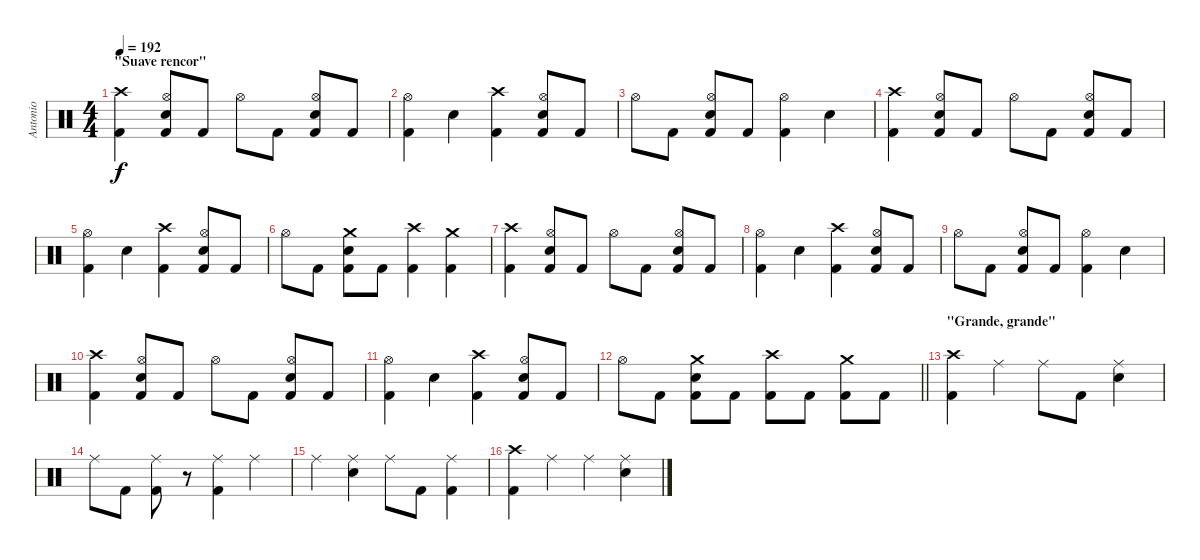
\track ("Antonio" "Antonio") {instrument percussion}
\staff {score}
\articulation defaults
\ts (4 4)
\section ("" "\"Suave rencor\"")
\tempo 192
\clef neutral
\ks c
("Crash high (hit)" "Kick (hit) 2").4{dy f} ("Hi-Hat (open)" "Electric Snare (hit)" "Kick (hit) 2").8 "Kick (hit) 2".8 "Hi-Hat (open)".8 "Kick (hit) 2".8 ("Hi-Hat (open)" "Electric Snare (hit)" "Kick (hit) 2").8 "Kick (hit) 2".8 |
("Hi-Hat (open)" "Kick (hit) 2").4 "Electric Snare (hit)".4 ("Crash high (hit)" "Kick (hit) 2").4 ("Hi-Hat (open)" "Electric Snare (hit)" "Kick (hit) 2").8 "Kick (hit) 2".8 |
"Hi-Hat (open)".8 "Kick (hit) 2".8 ("Hi-Hat (open)" "Electric Snare (hit)" "Kick (hit) 2").8 "Kick (hit) 2".8 ("Hi-Hat (open)" "Kick (hit) 2").4 "Electric Snare (hit)".4 |
("Crash high (hit)" "Kick (hit) 2").4 ("Hi-Hat (open)" "Electric Snare (hit)" "Kick (hit) 2").8 "Kick (hit) 2".8 "Hi-Hat (open)".8 "Kick (hit) 2".8 ("Hi-Hat (open)" "Electric Snare (hit)" "Kick (hit) 2").8 "Kick (hit) 2".8 |
("Hi-Hat (open)" "Kick (hit) 2").4 "Electric Snare (hit)".4 ("Crash high (hit)" "Kick (hit) 2").4 ("Hi-Hat (open)" "Electric Snare (hit)" "Kick (hit) 2").8 "Kick (hit) 2".8 |
"Hi-Hat (open)".8 "Kick (hit) 2".8 ("Crash medium (hit)" "Electric Snare (hit)" "Kick (hit) 2").8 "Kick (hit) 2".8 ("Crash high (hit)" "Kick (hit) 2").4 ("Crash medium (hit)" "Kick (hit) 2").4 |
("Crash high (hit)" "Kick (hit) 2").4 ("Hi-Hat (open)" "Electric Snare (hit)" "Kick (hit) 2").8 "Kick (hit) 2".8 "Hi-Hat (open)".8 "Kick (hit) 2".8 ("Hi-Hat (open)" "Electric Snare (hit)" "Kick (hit) 2").8 "Kick (hit) 2".8 |
("Hi-Hat (open)" "Kick (hit) 2").4 "Electric Snare (hit)".4 ("Crash high (hit)" "Kick (hit) 2").4 ("Hi-Hat (open)" "Electric Snare (hit)" "Kick (hit) 2").8 "Kick (hit) 2".8 |
"Hi-Hat (open)".8 "Kick (hit) 2".8 ("Hi-Hat (open)" "Electric Snare (hit)" "Kick (hit) 2").8 "Kick (hit) 2".8 ("Hi-Hat (open)" "Kick (hit) 2").4 "Electric Snare (hit)".4 |
("Crash high (hit)" "Kick (hit) 2").4 ("Hi-Hat (open)" "Electric Snare (hit)" "Kick (hit) 2").8 "Kick (hit) 2".8 "Hi-Hat (open)".8 "Kick (hit) 2".8 ("Hi-Hat (open)" "Electric Snare (hit)" "Kick (hit) 2").8 "Kick (hit) 2".8 |
("Hi-Hat (open)" "Kick (hit) 2").4 "Electric Snare (hit)".4 ("Crash high (hit)" "Kick (hit) 2").4 ("Hi-Hat (open)" "Electric Snare (hit)" "Kick (hit) 2").8 "Kick (hit) 2".8 |
\barLineRight lightlight "Hi-Hat (open)".8 "Kick (hit) 2".8
("Crash medium (hit)" "Electric Snare (hit)" "Kick (hit) 2").8 "Kick (hit) 2".8 ("Crash high (hit)" "Kick (hit) 2").8 "Kick (hit) 2".8 ("Crash medium (hit)" "Kick (hit) 2").8 "Kick (hit) 2".8 |
\section ("" "\"Grande, grande\"")
("Crash high (hit)" "Kick (hit) 2").4 "Ride (middle)".4 "Ride (middle)".8 "Kick (hit) 2".8 ("Ride (middle)" "Electric Snare (hit)").4 |
"Ride (middle)".8 "Kick (hit) 2".8 ("Ride (middle)" "Kick (hit) 2").8 r.8 ("Ride (middle)" "Kick (hit) 2").4 "Ride (middle)".4 |
"Ride (middle)".4 ("Ride (middle)" "Electric Snare (hit)").4 "Ride (middle)".8 "Kick (hit) 2".8 ("Ride (middle)" "Kick (hit) 2").4 |
("Crash high (hit)" "Kick (hit) 2").4 "Ride (middle)".4 "Ride (middle)".4 ("Ride (middle)" "Electric Snare (hit)").4
